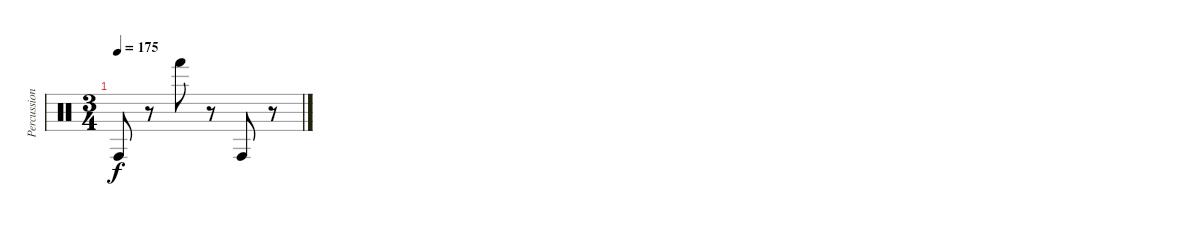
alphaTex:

\track ("Percussion" "Percussion") {instrument percussion}
\staff {score}
\articulation defaults
\ts (3 4)
\tempo 175
\clef neutral
\ks c "Conga high (hit)".8{dy f}
r.8 "Hand (hit)".8 r.8 "Conga high (hit)".8 r.8
